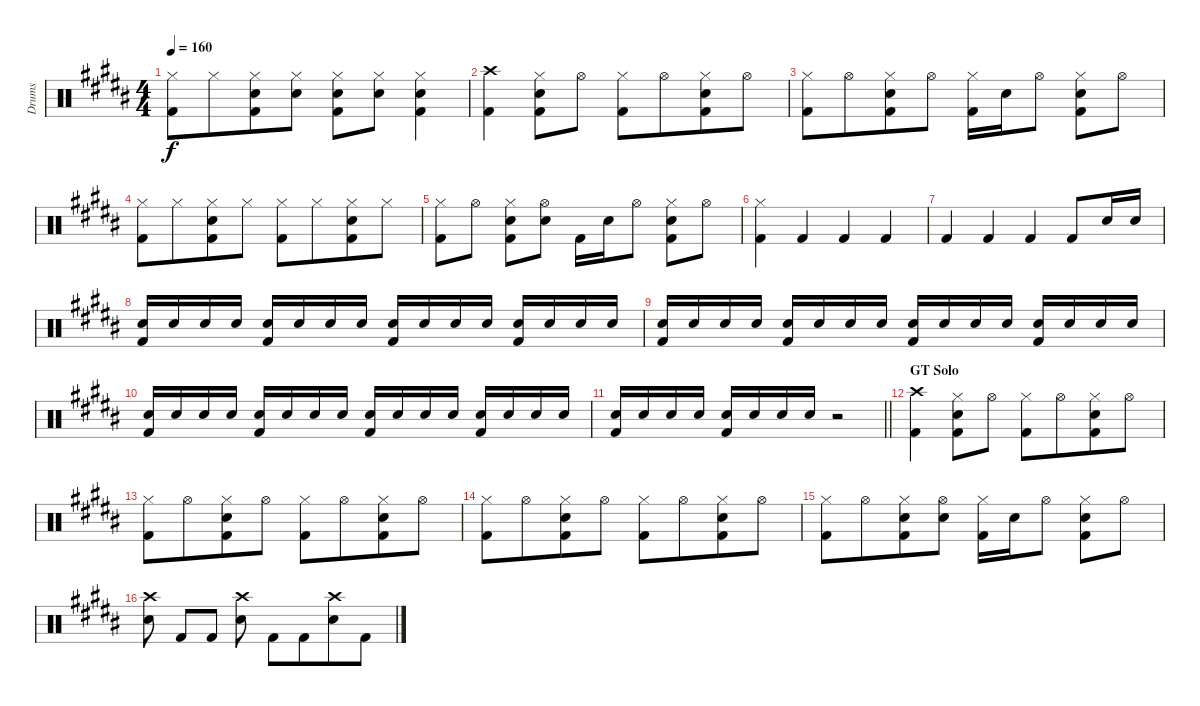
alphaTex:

\track ("Drums" "Drums") {instrument percussion}
\staff {score}
\articulation defaults
\ts (4 4)
\tempo 160
\clef neutral
\ks b
("Hi-Hat (closed)" "Kick (hit) 2").8{dy f} "Hi-Hat (closed)".8{beam merge} ("Hi-Hat (closed)" "Snare (hit) 2" "Kick (hit) 2").8 ("Hi-Hat (closed)" "Snare (hit) 2").8 ("Hi-Hat (closed)" "Snare (hit) 2" "Kick (hit) 2").8 ("Hi-Hat (closed)" "Snare (hit) 2").8 ("Hi-Hat (closed)" "Snare (hit) 2" "Kick (hit) 2").4 |
("Kick (hit) 2" "Crash high (hit)").4 ("Hi-Hat (closed)" "Snare (hit) 2" "Kick (hit) 2").8 "Hi-Hat (open)".8 ("Hi-Hat (closed)" "Kick (hit) 2").8 "Hi-Hat (open)".8{beam merge} ("Hi-Hat (closed)" "Snare (hit) 2" "Kick (hit) 2").8 "Hi-Hat (open)".8 |
("Hi-Hat (closed)" "Kick (hit) 2").8 "Hi-Hat (open)".8{beam merge} ("Hi-Hat (closed)" "Snare (hit) 2" "Kick (hit) 2").8 "Hi-Hat (open)".8 ("Hi-Hat (closed)" "Kick (hit) 2").16 "Snare (hit) 2".16 "Hi-Hat (open)".8 ("Hi-Hat (closed)" "Snare (hit) 2" "Kick (hit) 2").8 "Hi-Hat (open)".8 |
("Hi-Hat (closed)" "Kick (hit) 2").8 "Hi-Hat (closed)".8{beam merge} ("Hi-Hat (closed)" "Snare (hit) 2" "Kick (hit) 2").8 "Hi-Hat (closed)".8 ("Hi-Hat (closed)" "Kick (hit) 2").8 "Hi-Hat (closed)".8{beam merge} ("Hi-Hat (closed)" "Snare (hit) 2" "Kick (hit) 2").8 "Hi-Hat (closed)".8 |
("Hi-Hat (closed)" "Kick (hit) 2").8 "Hi-Hat (open)".8 ("Hi-Hat (closed)" "Snare (hit) 2" "Kick (hit) 2").8 ("Hi-Hat (open)" "Snare (hit) 2").8 "Kick (hit) 2".16 "Snare (hit) 2".16 "Hi-Hat (open)".8 ("Hi-Hat (closed)" "Snare (hit) 2" "Kick (hit) 2").8 "Hi-Hat (open)".8 |
("Hi-Hat (closed)" "Kick (hit) 2").4 "Kick (hit) 2".4 "Kick (hit) 2".4 "Kick (hit) 2".4 |
"Kick (hit) 2".4 "Kick (hit) 2".4 "Kick (hit) 2".4 "Kick (hit) 2".8 "Snare (hit) 2".16 "Snare (hit) 2".16 |
("Snare (hit) 2" "Kick (hit) 2").16 "Snare (hit) 2".16 "Snare (hit) 2".16 "Snare (hit) 2".16 ("Snare (hit) 2" "Kick (hit) 2").16 "Snare (hit) 2".16 "Snare (hit) 2".16 "Snare (hit) 2".16 ("Snare (hit) 2" "Kick (hit) 2").16 "Snare (hit) 2".16 "Snare (hit) 2".16 "Snare (hit) 2".16 ("Snare (hit) 2" "Kick (hit) 2").16 "Snare (hit) 2".16 "Snare (hit) 2".16 "Snare (hit) 2".16 |
("Snare (hit) 2" "Kick (hit) 2").16 "Snare (hit) 2".16 "Snare (hit) 2".16 "Snare (hit) 2".16 ("Snare (hit) 2" "Kick (hit) 2").16 "Snare (hit) 2".16 "Snare (hit) 2".16 "Snare (hit) 2".16 ("Snare (hit) 2" "Kick (hit) 2").16 "Snare (hit) 2".16 "Snare (hit) 2".16 "Snare (hit) 2".16 ("Snare (hit) 2" "Kick (hit) 2").16 "Snare (hit) 2".16 "Snare (hit) 2".16 "Snare (hit) 2".16 |
("Snare (hit) 2" "Kick (hit) 2").16 "Snare (hit) 2".16 "Snare (hit) 2".16 "Snare (hit) 2".16 ("Snare (hit) 2" "Kick (hit) 2").16 "Snare (hit) 2".16 "Snare (hit) 2".16 "Snare (hit) 2".16 ("Snare (hit) 2" "Kick (hit) 2").16 "Snare (hit) 2".16 "Snare (hit) 2".16 "Snare (hit) 2".16 ("Snare (hit) 2" "Kick (hit) 2").16 "Snare (hit) 2".16 "Snare (hit) 2".16 "Snare (hit) 2".16 |
\barLineRight lightlight
("Snare (hit) 2" "Kick (hit) 2").16 "Snare (hit) 2".16 "Snare (hit) 2".16 "Snare (hit) 2".16 ("Snare (hit) 2" "Kick (hit) 2").16 "Snare (hit) 2".16 "Snare (hit) 2".16 "Snare (hit) 2".16 r.2 |
\section ("" "GT Solo")
("Kick (hit) 2" "Crash high (hit)").4 ("Hi-Hat (closed)" "Snare (hit) 2" "Kick (hit) 2").8 "Hi-Hat (open)".8 ("Hi-Hat (closed)" "Kick (hit) 2").8 "Hi-Hat (open)".8{beam merge} ("Hi-Hat (closed)" "Snare (hit) 2" "Kick (hit) 2").8 "Hi-Hat (open)".8 |
("Hi-Hat (closed)" "Kick (hit) 2").8 "Hi-Hat (open)".8{beam merge} ("Hi-Hat (closed)" "Snare (hit) 2" "Kick (hit) 2").8 "Hi-Hat (open)".8 ("Hi-Hat (closed)" "Kick (hit) 2").8 "Hi-Hat (open)".8{beam merge} ("Hi-Hat (closed)" "Snare (hit) 2" "Kick (hit) 2").8 "Hi-Hat (open)".8 |
("Hi-Hat (closed)" "Kick (hit) 2").8 "Hi-Hat (open)".8{beam merge} ("Hi-Hat (closed)" "Snare (hit) 2" "Kick (hit) 2").8 "Hi-Hat (open)".8 ("Hi-Hat (closed)" "Kick (hit) 2").8 "Hi-Hat (open)".8{beam merge} ("Hi-Hat (closed)" "Snare (hit) 2" "Kick (hit) 2").8 "Hi-Hat (open)".8 |
("Hi-Hat (closed)" "Kick (hit) 2").8 "Hi-Hat (open)".8{beam merge} ("Hi-Hat (closed)" "Snare (hit) 2" "Kick (hit) 2").8 ("Hi-Hat (open)" "Snare (hit) 2").8 ("Hi-Hat (closed)" "Kick (hit) 2").16 "Snare (hit) 2".16 "Hi-Hat (open)".8 ("Hi-Hat (closed)" "Snare (hit) 2" "Kick (hit) 2").8 "Hi-Hat (open)".8 |
("Snare (hit) 2" "Crash high (hit)").8{beam split} "Kick (hit) 2".8{beam merge} "Kick (hit) 2".8{beam split} ("Snare (hit) 2" "Crash high (hit)").8 "Kick (hit) 2".8{beam merge} "Kick (hit) 2".8{beam merge} ("Snare (hit) 2" "Crash high (hit)").8{beam merge} "Kick (hit) 2".8
